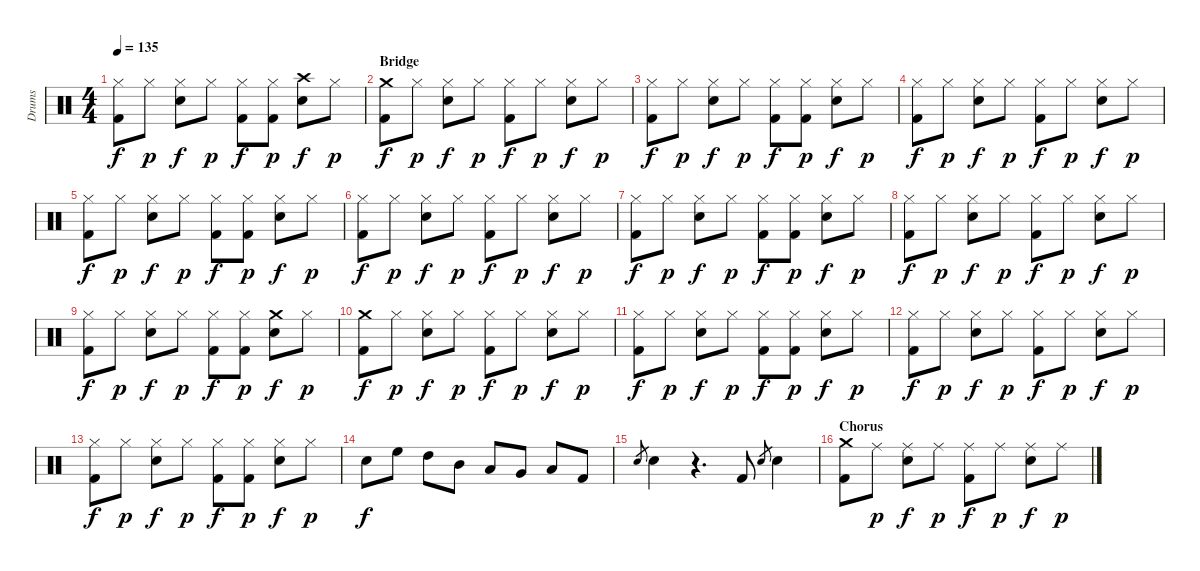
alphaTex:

\track ("Drums" "Drums") {instrument percussion}
\staff {score}
\articulation defaults
\ts (4 4)
\tempo 135
\clef neutral
\ks c
("Hi-Hat (closed)" "Kick (hit) 2").8{dy f} "Hi-Hat (closed)".8{dy p} ("Hi-Hat (closed)" "Snare (hit) 2").8{dy f} "Hi-Hat (closed)".8{dy p} ("Hi-Hat (closed)" "Kick (hit) 2").8{dy f} ("Hi-Hat (closed)" "Kick (hit) 2").8{dy p} ("Crash high (hit)" "Snare (hit) 2").8{dy f} "Hi-Hat (closed)".8{dy p} |
\section ("" "Bridge")
("Crash medium (hit)" "Kick (hit) 2").8{dy f} "Hi-Hat (closed)".8{dy p} ("Hi-Hat (closed)" "Snare (hit) 2").8{dy f} "Hi-Hat (closed)".8{dy p} ("Hi-Hat (closed)" "Kick (hit) 2").8{dy f} "Hi-Hat (closed)".8{dy p} ("Hi-Hat (closed)" "Snare (hit) 2").8{dy f} "Hi-Hat (closed)".8{dy p} |
("Hi-Hat (closed)" "Kick (hit) 2").8{dy f} "Hi-Hat (closed)".8{dy p} ("Hi-Hat (closed)" "Snare (hit) 2").8{dy f} "Hi-Hat (closed)".8{dy p} ("Hi-Hat (closed)" "Kick (hit) 2").8{dy f} ("Hi-Hat (closed)" "Kick (hit) 2").8{dy p} ("Hi-Hat (closed)" "Snare (hit) 2").8{dy f} "Hi-Hat (closed)".8{dy p} |
("Hi-Hat (closed)" "Kick (hit) 2").8{dy f} "Hi-Hat (closed)".8{dy p} ("Hi-Hat (closed)" "Snare (hit) 2").8{dy f} "Hi-Hat (closed)".8{dy p} ("Hi-Hat (closed)" "Kick (hit) 2").8{dy f} "Hi-Hat (closed)".8{dy p} ("Hi-Hat (closed)" "Snare (hit) 2").8{dy f} "Hi-Hat (closed)".8{dy p} |
("Hi-Hat (closed)" "Kick (hit) 2").8{dy f} "Hi-Hat (closed)".8{dy p} ("Hi-Hat (closed)" "Snare (hit) 2").8{dy f} "Hi-Hat (closed)".8{dy p} ("Hi-Hat (closed)" "Kick (hit) 2").8{dy f} ("Hi-Hat (closed)" "Kick (hit) 2").8{dy p} ("Hi-Hat (closed)" "Snare (hit) 2").8{dy f} "Hi-Hat (closed)".8{dy p} |
("Hi-Hat (closed)" "Kick (hit) 2").8{dy f} "Hi-Hat (closed)".8{dy p} ("Hi-Hat (closed)" "Snare (hit) 2").8{dy f} "Hi-Hat (closed)".8{dy p} ("Hi-Hat (closed)" "Kick (hit) 2").8{dy f} "Hi-Hat (closed)".8{dy p} ("Hi-Hat (closed)" "Snare (hit) 2").8{dy f} "Hi-Hat (closed)".8{dy p} |
("Hi-Hat (closed)" "Kick (hit) 2").8{dy f} "Hi-Hat (closed)".8{dy p} ("Hi-Hat (closed)" "Snare (hit) 2").8{dy f} "Hi-Hat (closed)".8{dy p} ("Hi-Hat (closed)" "Kick (hit) 2").8{dy f} ("Hi-Hat (closed)" "Kick (hit) 2").8{dy p} ("Hi-Hat (closed)" "Snare (hit) 2").8{dy f} "Hi-Hat (closed)".8{dy p} |
("Hi-Hat (closed)" "Kick (hit) 2").8{dy f} "Hi-Hat (closed)".8{dy p} ("Hi-Hat (closed)" "Snare (hit) 2").8{dy f} "Hi-Hat (closed)".8{dy p} ("Hi-Hat (closed)" "Kick (hit) 2").8{dy f} "Hi-Hat (closed)".8{dy p} ("Hi-Hat (closed)" "Snare (hit) 2").8{dy f} "Hi-Hat (closed)".8{dy p} |
("Hi-Hat (closed)" "Kick (hit) 2").8{dy f} "Hi-Hat (closed)".8{dy p} ("Hi-Hat (closed)" "Snare (hit) 2").8{dy f} "Hi-Hat (closed)".8{dy p} ("Hi-Hat (closed)" "Kick (hit) 2").8{dy f} ("Hi-Hat (closed)" "Kick (hit) 2").8{dy p} ("Crash medium (hit)" "Snare (hit) 2").8{dy f} "Hi-Hat (closed)".8{dy p} |
("Crash medium (hit)" "Kick (hit) 2").8{dy f} "Hi-Hat (closed)".8{dy p} ("Hi-Hat (closed)" "Snare (hit) 2").8{dy f} "Hi-Hat (closed)".8{dy p} ("Hi-Hat (closed)" "Kick (hit) 2").8{dy f} "Hi-Hat (closed)".8{dy p} ("Hi-Hat (closed)" "Snare (hit) 2").8{dy f} "Hi-Hat (closed)".8{dy p} |
("Hi-Hat (closed)" "Kick (hit) 2").8{dy f} "Hi-Hat (closed)".8{dy p} ("Hi-Hat (closed)" "Snare (hit) 2").8{dy f} "Hi-Hat (closed)".8{dy p} ("Hi-Hat (closed)" "Kick (hit) 2").8{dy f} ("Hi-Hat (closed)" "Kick (hit) 2").8{dy p} ("Hi-Hat (closed)" "Snare (hit) 2").8{dy f} "Hi-Hat (closed)".8{dy p} |
("Hi-Hat (closed)" "Kick (hit) 2").8{dy f} "Hi-Hat (closed)".8{dy p} ("Hi-Hat (closed)" "Snare (hit) 2").8{dy f} "Hi-Hat (closed)".8{dy p} ("Hi-Hat (closed)" "Kick (hit) 2").8{dy f} "Hi-Hat (closed)".8{dy p} ("Hi-Hat (closed)" "Snare (hit) 2").8{dy f} "Hi-Hat (closed)".8{dy p} |
("Hi-Hat (closed)" "Kick (hit) 2").8{dy f} "Hi-Hat (closed)".8{dy p} ("Hi-Hat (closed)" "Snare (hit) 2").8{dy f} "Hi-Hat (closed)".8{dy p} ("Hi-Hat (closed)" "Kick (hit) 2").8{dy f} ("Hi-Hat (closed)" "Kick (hit) 2").8{dy p} ("Hi-Hat (closed)" "Snare (hit) 2").8{dy f} "Hi-Hat (closed)".8{dy p} |
"Snare (hit) 2".8{dy f} "High Floor Tom (hit)".8 "High Tom (hit)".8 "Mid Tom (hit)".8 "Low Tom (hit)".8 "Very Low Tom (hit)".8 "Low Floor Tom (hit)".8 "Kick (hit) 2".8 |
"Snare (hit) 2".8{gr} "Snare (hit) 2".4 r.4{d} "Kick (hit) 2".8 "Snare (hit) 2".8{gr} "Snare (hit) 2".4 |
\section ("" "Chorus")
("Crash medium (hit)" "Kick (hit) 2").8 "Ride (middle)".8{dy p} ("Ride (middle)" "Snare (hit) 2").8{dy f} "Ride (middle)".8{dy p} ("Ride (middle)" "Kick (hit) 2").8{dy f} "Ride (middle)".8{dy p} ("Ride (middle)" "Snare (hit) 2").8{dy f} "Ride (middle)".8{dy p}
